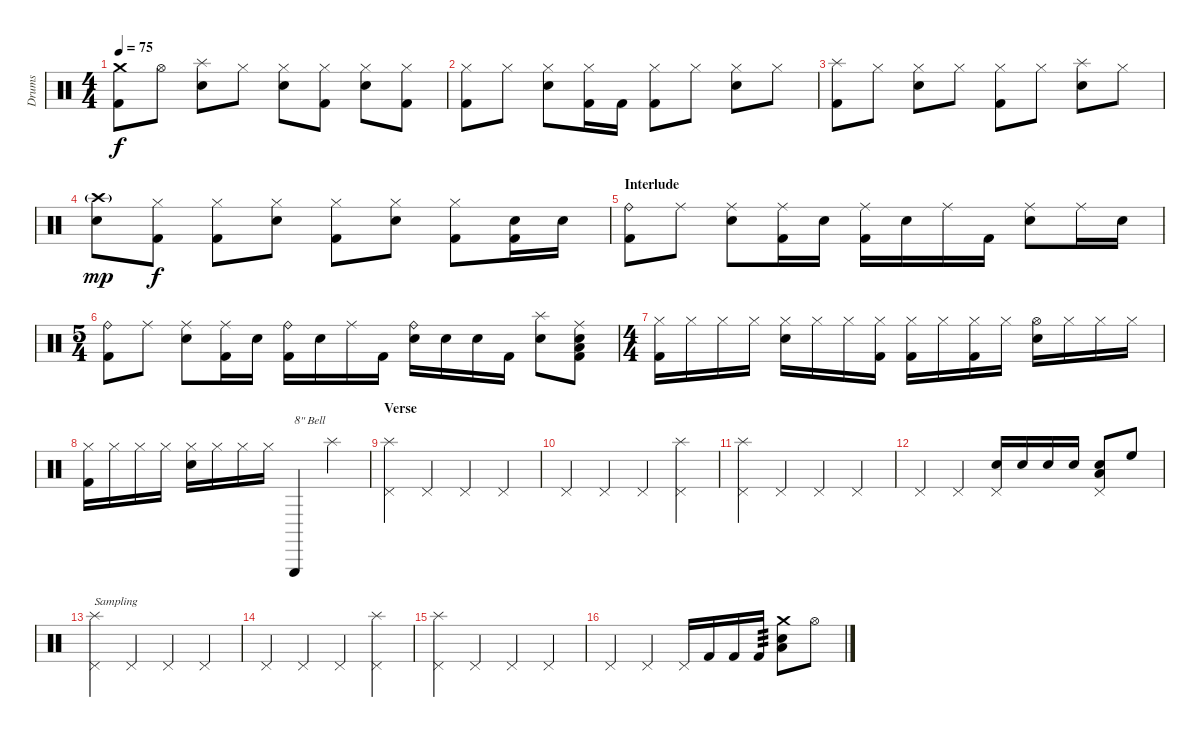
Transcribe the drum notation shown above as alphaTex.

\track ("Drums" "Drums") {instrument percussion}
\staff {score}
\articulation defaults
\ts (4 4)
\tempo 75
\clef neutral
\ks c
("Crash medium (hit)" "Kick (hit) 2").8{dy f} "Hi-Hat (open)".8 ("Splash (hit)" "Snare (hit) 2").8 "Hi-Hat (closed)".8 ("Hi-Hat (closed)" "Snare (hit) 2").8 ("Hi-Hat (closed)" "Kick (hit) 2").8 ("Hi-Hat (closed)" "Snare (hit) 2").8 ("Hi-Hat (closed)" "Kick (hit) 2").8 |
("Hi-Hat (closed)" "Kick (hit) 2").8 "Hi-Hat (closed)".8 ("Hi-Hat (closed)" "Snare (hit) 2").8 ("Hi-Hat (closed)" "Kick (hit) 2").16 "Kick (hit) 2".16 ("Hi-Hat (closed)" "Kick (hit) 2").8 "Hi-Hat (closed)".8 ("Hi-Hat (closed)" "Snare (hit) 2").8 "Hi-Hat (closed)".8 |
("Splash (hit)" "Kick (hit) 2").8 "Hi-Hat (closed)".8 ("Hi-Hat (closed)" "Snare (hit) 2").8 "Hi-Hat (closed)".8 ("Hi-Hat (closed)" "Kick (hit) 2").8 "Hi-Hat (closed)".8 ("Splash (hit)" "Snare (hit) 2").8 "Hi-Hat (closed)".8 |
("Crash high (hit)"{g} "Snare (hit) 2").8{dy mp} ("Hi-Hat (closed)" "Kick (hit) 2").8{dy f} ("Hi-Hat (closed)" "Kick (hit) 2").8 ("Hi-Hat (closed)" "Snare (hit) 2").8 ("Hi-Hat (closed)" "Kick (hit) 2").8 ("Hi-Hat (closed)" "Snare (hit) 2").8 ("Hi-Hat (closed)" "Kick (hit) 2").8 ("Snare (hit) 2" "Kick (hit) 2").16 "Snare (hit) 2".16 |
\section ("" "Interlude")
("Ride (bell)" "Kick (hit) 2").8 "Ride (middle)".8 ("Ride (middle)" "Snare (hit) 2").8 ("Ride (middle)" "Kick (hit) 2").16 "Snare (hit) 2".16 ("Ride (middle)" "Kick (hit) 2").16 "Snare (hit) 2".16 "Ride (middle)".16 "Kick (hit) 2".16 ("Ride (middle)" "Snare (hit) 2").8 "Ride (middle)".16 "Snare (hit) 2".16 |
\ts (5 4)
("Ride (bell)" "Kick (hit) 2").8 "Ride (middle)".8 ("Ride (middle)" "Snare (hit) 2").8 ("Ride (middle)" "Kick (hit) 2").16 "Snare (hit) 2".16 ("Ride (bell)" "Kick (hit) 2").16 "Snare (hit) 2".16 "Ride (middle)".16 "Kick (hit) 2".16 ("Ride (bell)" "Snare (hit) 2").16 "Snare (hit) 2".16 "Snare (hit) 2".16 "Kick (hit) 2".16 ("Splash (hit)" "Snare (hit) 2").8 ("Ride (middle)" "Snare (hit) 2" "Low Tom (hit)" "Kick (hit) 2").8 |
\ts (4 4)
("Hi-Hat (closed)" "Kick (hit) 2").16 "Hi-Hat (closed)".16 "Hi-Hat (closed)".16 "Hi-Hat (closed)".16 ("Hi-Hat (closed)" "Snare (hit) 2").16 "Hi-Hat (closed)".16 "Hi-Hat (closed)".16 ("Hi-Hat (closed)" "Kick (hit) 2").16 ("Hi-Hat (closed)" "Kick (hit) 2").16 "Hi-Hat (closed)".16 ("Hi-Hat (closed)" "Kick (hit) 2").16 "Hi-Hat (closed)".16 ("Hi-Hat (open)" "Snare (hit) 2").16 "Hi-Hat (closed)".16 "Hi-Hat (closed)".16 "Hi-Hat (closed)".16 |
("Hi-Hat (closed)" "Kick (hit) 2").16 "Hi-Hat (closed)".16 "Hi-Hat (closed)".16 "Hi-Hat (closed)".16 ("Hi-Hat (closed)" "Snare (hit) 2").16 "Hi-Hat (closed)".16 "Hi-Hat (closed)".16 "Hi-Hat (closed)".16 "Triangle (hit)".4{txt "8\" Bell"} "Splash (hit)".4 |
\section ("" "Verse")
("Pedal Hi-Hat (hit)" "Splash (hit)").4 "Pedal Hi-Hat (hit)".4 "Pedal Hi-Hat (hit)".4 "Pedal Hi-Hat (hit)".4 |
"Pedal Hi-Hat (hit)".4 "Pedal Hi-Hat (hit)".4 "Pedal Hi-Hat (hit)".4 ("Pedal Hi-Hat (hit)" "Splash (hit)").4 |
("Pedal Hi-Hat (hit)" "Splash (hit)").4 "Pedal Hi-Hat (hit)".4 "Pedal Hi-Hat (hit)".4 "Pedal Hi-Hat (hit)".4 |
"Pedal Hi-Hat (hit)".4 "Pedal Hi-Hat (hit)".4 ("Pedal Hi-Hat (hit)" "Snare (hit) 2").16 "Snare (hit) 2".16 "Snare (hit) 2".16 "Snare (hit) 2".16 ("Pedal Hi-Hat (hit)" "Snare (hit) 2" "Low Tom (hit)").8 "High Floor Tom (hit)".8 |
("Pedal Hi-Hat (hit)" "Splash (hit)").4{txt "Sampling"} "Pedal Hi-Hat (hit)".4 "Pedal Hi-Hat (hit)".4 "Pedal Hi-Hat (hit)".4 |
"Pedal Hi-Hat (hit)".4 "Pedal Hi-Hat (hit)".4 "Pedal Hi-Hat (hit)".4 ("Pedal Hi-Hat (hit)" "Splash (hit)").4 |
("Pedal Hi-Hat (hit)" "Splash (hit)").4 "Pedal Hi-Hat (hit)".4 "Pedal Hi-Hat (hit)".4 "Pedal Hi-Hat (hit)".4 |
"Pedal Hi-Hat (hit)".4 "Pedal Hi-Hat (hit)".4 "Pedal Hi-Hat (hit)".16 "Kick (hit) 2".16 "Kick (hit) 2".16 "Kick (hit) 2".16{tp 3} ("Crash medium (hit)" "Snare (hit) 2" "Low Floor Tom (hit)").8 "Hi-Hat (open)".8
